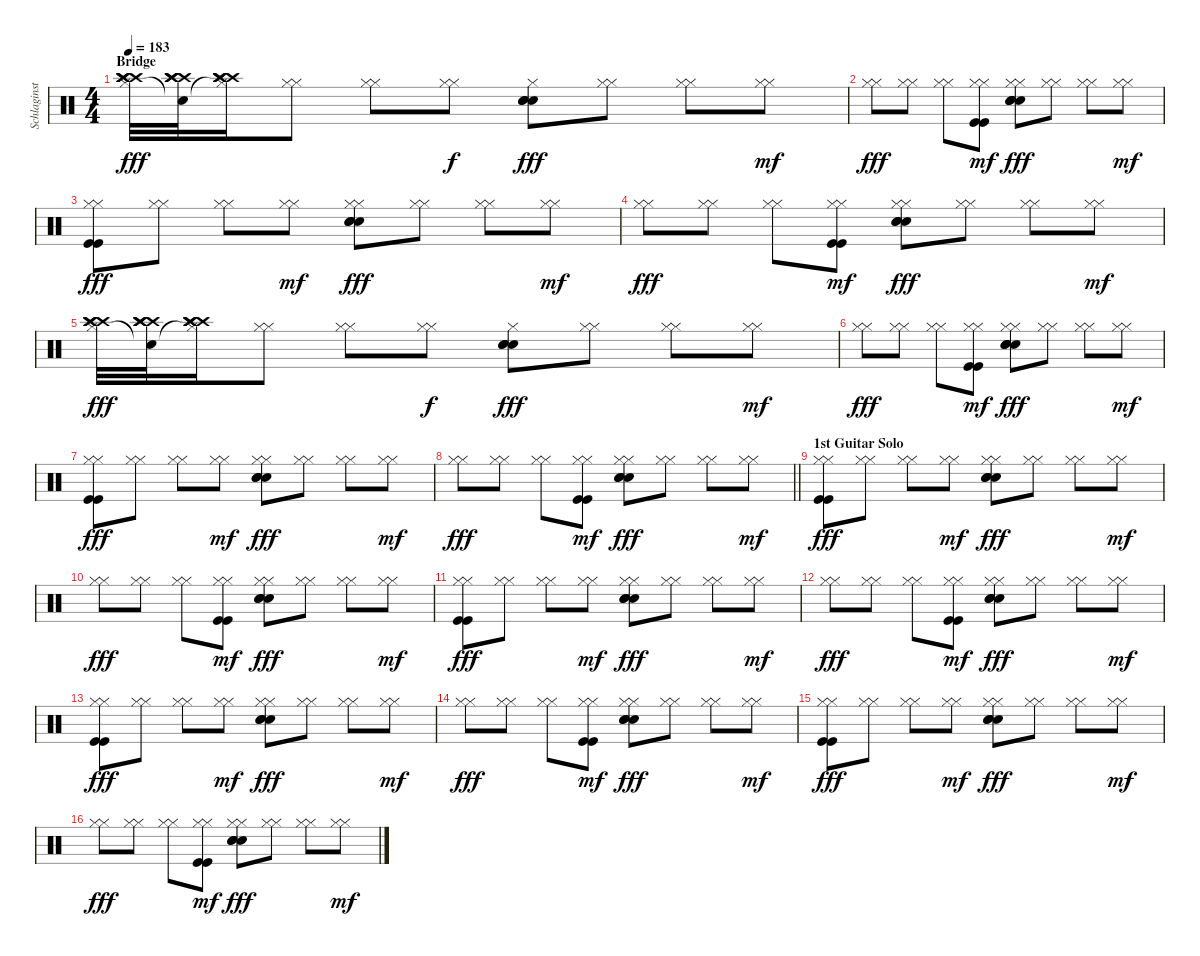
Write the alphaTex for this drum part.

\track ("Schlaginstrumente - Auswahl" "Schlaginst") {instrument percussion}
\staff {score}
\articulation defaults
\ts (4 4)
\section ("" "Bridge")
\tempo 183
\clef neutral
\ks c
("Hi-Hat (closed)" "Crash high (hit)" "Crash high (hit)" "Crash high (hit)" "Crash high (hit)").32{dy fff} ("Snare (hit)"{t} "Crash high (hit)" "Crash high (hit)" "Crash high (hit)" "Crash high (hit)").32 ("Hi-Hat (closed)"{t} "Crash high (hit)" "Crash high (hit)" "Crash high (hit)" "Crash high (hit)").16 ("Hi-Hat (closed)" "Hi-Hat (closed)").8 ("Hi-Hat (closed)" "Hi-Hat (closed)").8 ("Hi-Hat (closed)" "Hi-Hat (closed)").8{dy f} ("Hi-Hat (closed)" "Snare (hit) 2" "Snare (hit) 2" "Snare (hit) 2").8{dy fff} ("Hi-Hat (closed)" "Hi-Hat (closed)").8 ("Hi-Hat (closed)" "Hi-Hat (closed)").8 ("Hi-Hat (closed)" "Hi-Hat (closed)").8{dy mf} |
("Hi-Hat (closed)" "Hi-Hat (closed)").8{dy fff} ("Hi-Hat (closed)" "Hi-Hat (closed)").8 ("Hi-Hat (closed)" "Hi-Hat (closed)").8 ("Hi-Hat (closed)" "Hi-Hat (closed)" "Kick (hit)" "Kick (hit)").8{dy mf} ("Hi-Hat (closed)" "Hi-Hat (closed)" "Snare (hit) 2" "Snare (hit) 2" "Snare (hit) 2" "Snare (hit) 2").8{dy fff} ("Hi-Hat (closed)" "Hi-Hat (closed)").8 ("Hi-Hat (closed)" "Hi-Hat (closed)").8 ("Hi-Hat (closed)" "Hi-Hat (closed)").8{dy mf} |
("Hi-Hat (closed)" "Hi-Hat (closed)" "Kick (hit)" "Kick (hit)").8{dy fff} ("Hi-Hat (closed)" "Hi-Hat (closed)").8 ("Hi-Hat (closed)" "Hi-Hat (closed)").8 ("Hi-Hat (closed)" "Hi-Hat (closed)").8{dy mf} ("Hi-Hat (closed)" "Hi-Hat (closed)" "Snare (hit) 2" "Snare (hit) 2" "Snare (hit) 2").8{dy fff} ("Hi-Hat (closed)" "Hi-Hat (closed)").8 ("Hi-Hat (closed)" "Hi-Hat (closed)").8 ("Hi-Hat (closed)" "Hi-Hat (closed)").8{dy mf} |
("Hi-Hat (closed)" "Hi-Hat (closed)").8{dy fff} ("Hi-Hat (closed)" "Hi-Hat (closed)").8 ("Hi-Hat (closed)" "Hi-Hat (closed)").8 ("Hi-Hat (closed)" "Hi-Hat (closed)" "Kick (hit)" "Kick (hit)").8{dy mf} ("Hi-Hat (closed)" "Hi-Hat (closed)" "Snare (hit) 2" "Snare (hit) 2" "Snare (hit) 2").8{dy fff} ("Hi-Hat (closed)" "Hi-Hat (closed)").8 ("Hi-Hat (closed)" "Hi-Hat (closed)").8 ("Hi-Hat (closed)" "Hi-Hat (closed)").8{dy mf} |
("Hi-Hat (closed)" "Crash high (hit)" "Crash high (hit)" "Crash high (hit)" "Crash high (hit)").32{dy fff} ("Snare (hit)"{t} "Crash high (hit)" "Crash high (hit)" "Crash high (hit)" "Crash high (hit)").32 ("Hi-Hat (closed)"{t} "Crash high (hit)" "Crash high (hit)" "Crash high (hit)" "Crash high (hit)").16 ("Hi-Hat (closed)" "Hi-Hat (closed)").8 ("Hi-Hat (closed)" "Hi-Hat (closed)").8 ("Hi-Hat (closed)" "Hi-Hat (closed)").8{dy f} ("Hi-Hat (closed)" "Snare (hit) 2" "Snare (hit) 2" "Snare (hit) 2").8{dy fff} ("Hi-Hat (closed)" "Hi-Hat (closed)").8 ("Hi-Hat (closed)" "Hi-Hat (closed)").8 ("Hi-Hat (closed)" "Hi-Hat (closed)").8{dy mf} |
("Hi-Hat (closed)" "Hi-Hat (closed)").8{dy fff} ("Hi-Hat (closed)" "Hi-Hat (closed)").8 ("Hi-Hat (closed)" "Hi-Hat (closed)").8 ("Hi-Hat (closed)" "Hi-Hat (closed)" "Kick (hit)" "Kick (hit)").8{dy mf} ("Hi-Hat (closed)" "Hi-Hat (closed)" "Snare (hit) 2" "Snare (hit) 2" "Snare (hit) 2" "Snare (hit) 2").8{dy fff} ("Hi-Hat (closed)" "Hi-Hat (closed)").8 ("Hi-Hat (closed)" "Hi-Hat (closed)").8 ("Hi-Hat (closed)" "Hi-Hat (closed)").8{dy mf} |
("Hi-Hat (closed)" "Hi-Hat (closed)" "Kick (hit)" "Kick (hit)").8{dy fff} ("Hi-Hat (closed)" "Hi-Hat (closed)").8 ("Hi-Hat (closed)" "Hi-Hat (closed)").8 ("Hi-Hat (closed)" "Hi-Hat (closed)").8{dy mf} ("Hi-Hat (closed)" "Hi-Hat (closed)" "Snare (hit) 2" "Snare (hit) 2" "Snare (hit) 2").8{dy fff} ("Hi-Hat (closed)" "Hi-Hat (closed)").8 ("Hi-Hat (closed)" "Hi-Hat (closed)").8 ("Hi-Hat (closed)" "Hi-Hat (closed)").8{dy mf} |
\barLineRight lightlight
("Hi-Hat (closed)" "Hi-Hat (closed)").8{dy fff} ("Hi-Hat (closed)" "Hi-Hat (closed)").8 ("Hi-Hat (closed)" "Hi-Hat (closed)").8 ("Hi-Hat (closed)" "Hi-Hat (closed)" "Kick (hit)" "Kick (hit)").8{dy mf} ("Hi-Hat (closed)" "Hi-Hat (closed)" "Snare (hit) 2" "Snare (hit) 2" "Snare (hit) 2").8{dy fff} ("Hi-Hat (closed)" "Hi-Hat (closed)").8 ("Hi-Hat (closed)" "Hi-Hat (closed)").8 ("Hi-Hat (closed)" "Hi-Hat (closed)").8{dy mf} |
\section ("" "1st Guitar Solo")
("Hi-Hat (closed)" "Hi-Hat (closed)" "Kick (hit)" "Kick (hit)").8{dy fff} ("Hi-Hat (closed)" "Hi-Hat (closed)").8 ("Hi-Hat (closed)" "Hi-Hat (closed)").8 ("Hi-Hat (closed)" "Hi-Hat (closed)").8{dy mf} ("Hi-Hat (closed)" "Hi-Hat (closed)" "Snare (hit) 2" "Snare (hit) 2" "Snare (hit) 2").8{dy fff} ("Hi-Hat (closed)" "Hi-Hat (closed)").8 ("Hi-Hat (closed)" "Hi-Hat (closed)").8 ("Hi-Hat (closed)" "Hi-Hat (closed)").8{dy mf} |
("Hi-Hat (closed)" "Hi-Hat (closed)").8{dy fff} ("Hi-Hat (closed)" "Hi-Hat (closed)").8 ("Hi-Hat (closed)" "Hi-Hat (closed)").8 ("Hi-Hat (closed)" "Hi-Hat (closed)" "Kick (hit)" "Kick (hit)").8{dy mf} ("Hi-Hat (closed)" "Hi-Hat (closed)" "Snare (hit) 2" "Snare (hit) 2" "Snare (hit) 2").8{dy fff} ("Hi-Hat (closed)" "Hi-Hat (closed)").8 ("Hi-Hat (closed)" "Hi-Hat (closed)").8 ("Hi-Hat (closed)" "Hi-Hat (closed)").8{dy mf} |
("Hi-Hat (closed)" "Hi-Hat (closed)" "Kick (hit)" "Kick (hit)").8{dy fff} ("Hi-Hat (closed)" "Hi-Hat (closed)").8 ("Hi-Hat (closed)" "Hi-Hat (closed)").8 ("Hi-Hat (closed)" "Hi-Hat (closed)").8{dy mf} ("Hi-Hat (closed)" "Hi-Hat (closed)" "Snare (hit) 2" "Snare (hit) 2" "Snare (hit) 2").8{dy fff} ("Hi-Hat (closed)" "Hi-Hat (closed)").8 ("Hi-Hat (closed)" "Hi-Hat (closed)").8 ("Hi-Hat (closed)" "Hi-Hat (closed)").8{dy mf} |
("Hi-Hat (closed)" "Hi-Hat (closed)").8{dy fff} ("Hi-Hat (closed)" "Hi-Hat (closed)").8 ("Hi-Hat (closed)" "Hi-Hat (closed)").8 ("Hi-Hat (closed)" "Hi-Hat (closed)" "Kick (hit)" "Kick (hit)").8{dy mf} ("Hi-Hat (closed)" "Hi-Hat (closed)" "Snare (hit) 2" "Snare (hit) 2" "Snare (hit) 2").8{dy fff} ("Hi-Hat (closed)" "Hi-Hat (closed)").8 ("Hi-Hat (closed)" "Hi-Hat (closed)").8 ("Hi-Hat (closed)" "Hi-Hat (closed)").8{dy mf} |
("Hi-Hat (closed)" "Hi-Hat (closed)" "Kick (hit)" "Kick (hit)").8{dy fff} ("Hi-Hat (closed)" "Hi-Hat (closed)").8 ("Hi-Hat (closed)" "Hi-Hat (closed)").8 ("Hi-Hat (closed)" "Hi-Hat (closed)").8{dy mf} ("Hi-Hat (closed)" "Hi-Hat (closed)" "Snare (hit) 2" "Snare (hit) 2" "Snare (hit) 2").8{dy fff} ("Hi-Hat (closed)" "Hi-Hat (closed)").8 ("Hi-Hat (closed)" "Hi-Hat (closed)").8 ("Hi-Hat (closed)" "Hi-Hat (closed)").8{dy mf} |
("Hi-Hat (closed)" "Hi-Hat (closed)").8{dy fff} ("Hi-Hat (closed)" "Hi-Hat (closed)").8 ("Hi-Hat (closed)" "Hi-Hat (closed)").8 ("Hi-Hat (closed)" "Hi-Hat (closed)" "Kick (hit)" "Kick (hit)").8{dy mf} ("Hi-Hat (closed)" "Hi-Hat (closed)" "Snare (hit) 2" "Snare (hit) 2" "Snare (hit) 2").8{dy fff} ("Hi-Hat (closed)" "Hi-Hat (closed)").8 ("Hi-Hat (closed)" "Hi-Hat (closed)").8 ("Hi-Hat (closed)" "Hi-Hat (closed)").8{dy mf} |
("Hi-Hat (closed)" "Hi-Hat (closed)" "Kick (hit)" "Kick (hit)").8{dy fff} ("Hi-Hat (closed)" "Hi-Hat (closed)").8 ("Hi-Hat (closed)" "Hi-Hat (closed)").8 ("Hi-Hat (closed)" "Hi-Hat (closed)").8{dy mf} ("Hi-Hat (closed)" "Hi-Hat (closed)" "Snare (hit) 2" "Snare (hit) 2" "Snare (hit) 2").8{dy fff} ("Hi-Hat (closed)" "Hi-Hat (closed)").8 ("Hi-Hat (closed)" "Hi-Hat (closed)").8 ("Hi-Hat (closed)" "Hi-Hat (closed)").8{dy mf} |
("Hi-Hat (closed)" "Hi-Hat (closed)").8{dy fff} ("Hi-Hat (closed)" "Hi-Hat (closed)").8 ("Hi-Hat (closed)" "Hi-Hat (closed)").8 ("Hi-Hat (closed)" "Hi-Hat (closed)" "Kick (hit)" "Kick (hit)").8{dy mf} ("Hi-Hat (closed)" "Hi-Hat (closed)" "Snare (hit) 2" "Snare (hit) 2" "Snare (hit) 2").8{dy fff} ("Hi-Hat (closed)" "Hi-Hat (closed)").8 ("Hi-Hat (closed)" "Hi-Hat (closed)").8 ("Hi-Hat (closed)" "Hi-Hat (closed)").8{dy mf}
